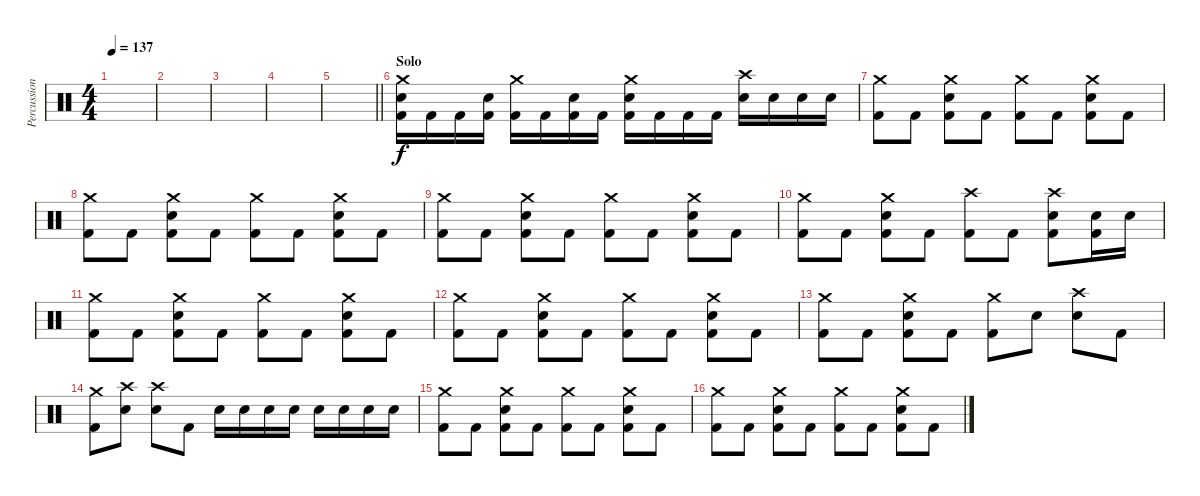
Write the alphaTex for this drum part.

\track ("Percussion" "Percussion") {instrument percussion}
\staff {score}
\articulation defaults
\ts (4 4)
\tempo 137
\clef neutral
\ks c
|
|
|
|
\barLineRight lightlight
|
\section ("" "Solo")
("Crash medium (hit)" "Snare (hit) 2" "Kick (hit) 2").16 "Kick (hit) 2".16 "Kick (hit) 2".16 ("Snare (hit) 2" "Kick (hit) 2").16 ("Crash medium (hit)" "Kick (hit) 2").16 "Kick (hit) 2".16 ("Snare (hit) 2" "Kick (hit) 2").16 "Kick (hit) 2".16 ("Crash medium (hit)" "Snare (hit) 2" "Kick (hit) 2").16 "Kick (hit) 2".16 "Kick (hit) 2".16 "Kick (hit) 2".16 ("Crash high (hit)" "Snare (hit) 2").16 "Snare (hit) 2".16 "Snare (hit) 2".16 "Snare (hit) 2".16 |
("Crash medium (hit)" "Kick (hit) 2").8 "Kick (hit) 2".8 ("Crash medium (hit)" "Snare (hit) 2" "Kick (hit) 2").8 "Kick (hit) 2".8 ("Crash medium (hit)" "Kick (hit) 2").8 "Kick (hit) 2".8 ("Crash medium (hit)" "Snare (hit) 2" "Kick (hit) 2").8 "Kick (hit) 2".8 |
("Crash medium (hit)" "Kick (hit) 2").8 "Kick (hit) 2".8 ("Crash medium (hit)" "Snare (hit) 2" "Kick (hit) 2").8 "Kick (hit) 2".8 ("Crash medium (hit)" "Kick (hit) 2").8 "Kick (hit) 2".8 ("Crash medium (hit)" "Snare (hit) 2" "Kick (hit) 2").8 "Kick (hit) 2".8 |
("Crash medium (hit)" "Kick (hit) 2").8 "Kick (hit) 2".8 ("Crash medium (hit)" "Snare (hit) 2" "Kick (hit) 2").8 "Kick (hit) 2".8 ("Crash medium (hit)" "Kick (hit) 2").8 "Kick (hit) 2".8 ("Crash medium (hit)" "Snare (hit) 2" "Kick (hit) 2").8 "Kick (hit) 2".8 |
("Crash medium (hit)" "Kick (hit) 2").8 "Kick (hit) 2".8 ("Crash medium (hit)" "Snare (hit) 2" "Kick (hit) 2").8 "Kick (hit) 2".8 ("Crash high (hit)" "Kick (hit) 2").8 "Kick (hit) 2".8 ("Crash high (hit)" "Snare (hit) 2" "Kick (hit) 2").8 ("Snare (hit) 2" "Kick (hit) 2").16 "Snare (hit) 2".16 |
("Crash medium (hit)" "Kick (hit) 2").8 "Kick (hit) 2".8 ("Crash medium (hit)" "Snare (hit) 2" "Kick (hit) 2").8 "Kick (hit) 2".8 ("Crash medium (hit)" "Kick (hit) 2").8 "Kick (hit) 2".8 ("Crash medium (hit)" "Snare (hit) 2" "Kick (hit) 2").8 "Kick (hit) 2".8 |
("Crash medium (hit)" "Kick (hit) 2").8 "Kick (hit) 2".8 ("Crash medium (hit)" "Snare (hit) 2" "Kick (hit) 2").8 "Kick (hit) 2".8 ("Crash medium (hit)" "Kick (hit) 2").8 "Kick (hit) 2".8 ("Crash medium (hit)" "Snare (hit) 2" "Kick (hit) 2").8 "Kick (hit) 2".8 |
("Crash medium (hit)" "Kick (hit) 2").8 "Kick (hit) 2".8 ("Crash medium (hit)" "Snare (hit) 2" "Kick (hit) 2").8 "Kick (hit) 2".8 ("Crash medium (hit)" "Kick (hit) 2").8 "Snare (hit) 2".8 ("Crash high (hit)" "Snare (hit) 2").8 "Kick (hit) 2".8 |
("Crash medium (hit)" "Kick (hit) 2").8 ("Crash high (hit)" "Snare (hit) 2").8 ("Crash high (hit)" "Snare (hit) 2").8 "Kick (hit) 2".8 "Snare (hit) 2".16 "Snare (hit) 2".16 "Snare (hit) 2".16 "Snare (hit) 2".16 "Snare (hit) 2".16 "Snare (hit) 2".16 "Snare (hit) 2".16 "Snare (hit) 2".16 |
("Crash medium (hit)" "Kick (hit) 2").8 "Kick (hit) 2".8 ("Crash medium (hit)" "Snare (hit) 2" "Kick (hit) 2").8 "Kick (hit) 2".8 ("Crash medium (hit)" "Kick (hit) 2").8 "Kick (hit) 2".8 ("Crash medium (hit)" "Snare (hit) 2" "Kick (hit) 2").8 "Kick (hit) 2".8 |
("Crash medium (hit)" "Kick (hit) 2").8 "Kick (hit) 2".8 ("Crash medium (hit)" "Snare (hit) 2" "Kick (hit) 2").8 "Kick (hit) 2".8 ("Crash medium (hit)" "Kick (hit) 2").8 "Kick (hit) 2".8 ("Crash medium (hit)" "Snare (hit) 2" "Kick (hit) 2").8 "Kick (hit) 2".8
